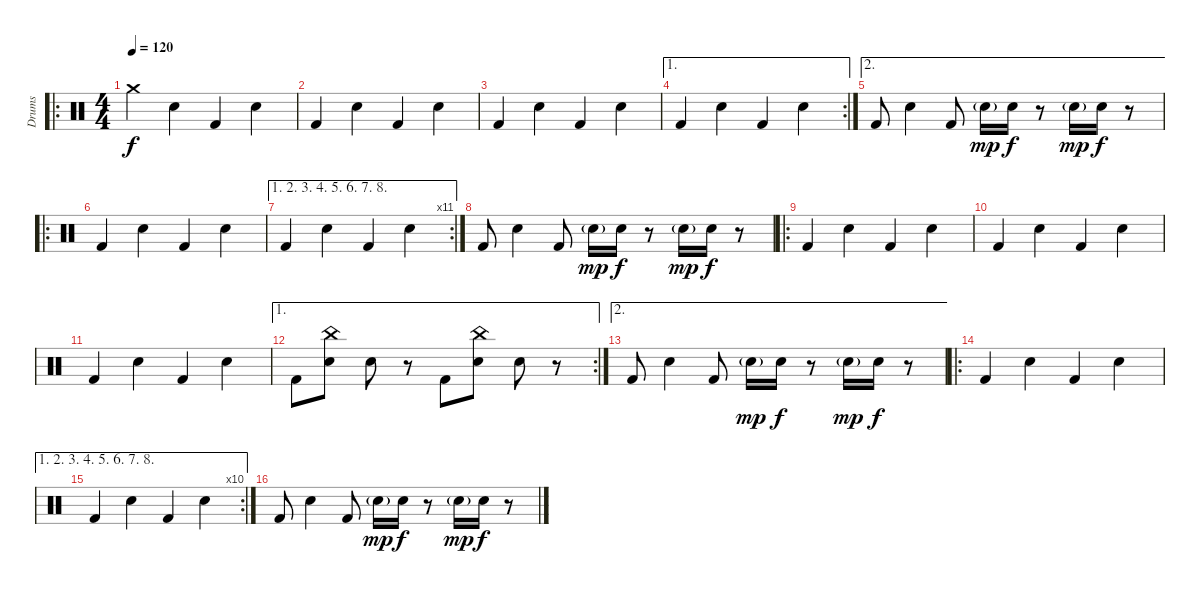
\track ("Drums" "Drums") {instrument percussion}
\staff {score}
\articulation defaults
\ro
\ts (4 4)
\tempo 120
\clef neutral
\ks c "Crash medium (hit)".4{dy f} "Snare (hit) 2".4 "Kick (hit) 2".4 "Snare (hit) 2".4
|
"Kick (hit) 2".4 "Snare (hit) 2".4 "Kick (hit) 2".4 "Snare (hit) 2".4 |
"Kick (hit) 2".4 "Snare (hit) 2".4 "Kick (hit) 2".4 "Snare (hit) 2".4 |
\ae 1
\rc 2 "Kick (hit) 2".4 "Snare (hit) 2".4 "Kick (hit) 2".4 "Snare (hit) 2".4
|
\ae 2 "Kick (hit) 2".8 "Snare (hit) 2".4 "Kick (hit) 2".8 "Snare (hit) 2"{g}.16{dy mp} "Snare (hit) 2".16{dy f}
r.8 "Snare (hit) 2"{g}.16{dy mp} "Snare (hit) 2".16{dy f} r.8 |
\ro "Kick (hit) 2".4 "Snare (hit) 2".4 "Kick (hit) 2".4 "Snare (hit) 2".4
|
\ae (1 2 3 4 5 6 7 8)
\rc 11 "Kick (hit) 2".4 "Snare (hit) 2".4 "Kick (hit) 2".4 "Snare (hit) 2".4
|
"Kick (hit) 2".8 "Snare (hit) 2".4 "Kick (hit) 2".8 "Snare (hit) 2"{g}.16{dy mp} "Snare (hit) 2".16{dy f} r.8 "Snare (hit) 2"{g}.16{dy mp} "Snare (hit) 2".16{dy f} r.8 |
\ro "Kick (hit) 2".4 "Snare (hit) 2".4 "Kick (hit) 2".4 "Snare (hit) 2".4
|
"Kick (hit) 2".4 "Snare (hit) 2".4 "Kick (hit) 2".4 "Snare (hit) 2".4 |
"Kick (hit) 2".4 "Snare (hit) 2".4 "Kick (hit) 2".4 "Snare (hit) 2".4 |
\ae 1
\rc 2 "Kick (hit) 2".8
("China (hit)" "Snare (hit) 2").8 "Snare (hit) 2".8 r.8 "Kick (hit) 2".8 ("China (hit)" "Snare (hit) 2").8 "Snare (hit) 2".8 r.8 |
\ae 2 "Kick (hit) 2".8 "Snare (hit) 2".4 "Kick (hit) 2".8 "Snare (hit) 2"{g}.16{dy mp} "Snare (hit) 2".16{dy f}
r.8 "Snare (hit) 2"{g}.16{dy mp} "Snare (hit) 2".16{dy f} r.8 |
\ro "Kick (hit) 2".4 "Snare (hit) 2".4 "Kick (hit) 2".4 "Snare (hit) 2".4
|
\ae (1 2 3 4 5 6 7 8)
\rc 10 "Kick (hit) 2".4 "Snare (hit) 2".4 "Kick (hit) 2".4 "Snare (hit) 2".4
|
"Kick (hit) 2".8 "Snare (hit) 2".4 "Kick (hit) 2".8 "Snare (hit) 2"{g}.16{dy mp} "Snare (hit) 2".16{dy f} r.8 "Snare (hit) 2"{g}.16{dy mp} "Snare (hit) 2".16{dy f} r.8
